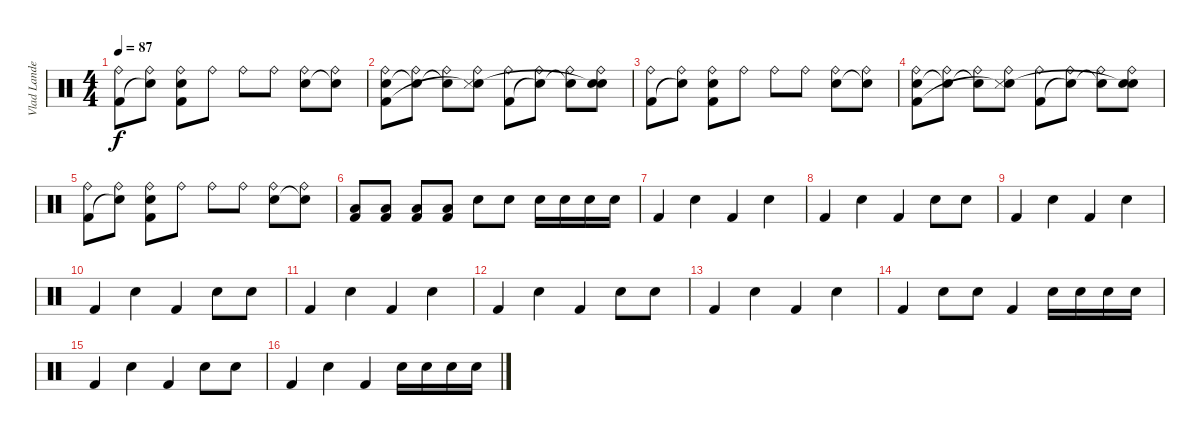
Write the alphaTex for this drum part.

\track ("Vlad Landeros" "Vlad Lande") {instrument percussion}
\staff {score}
\articulation defaults
\ts (4 4)
\tempo 87
\clef neutral
\ks c
("Ride (bell)" "Kick (hit) 2").8{dy f} ("Ride (bell)" "Snare (hit)"{t}).8 ("Ride (bell)" "Snare (hit) 2" "Kick (hit) 2").8 "Ride (bell)".8 "Ride (bell)".8 "Ride (bell)".8 ("Ride (bell)" "Snare (hit) 2").8 ("Ride (bell)" "Snare (hit)"{t}).8 |
("Ride (bell)" "Snare (hit) 2" "Kick (hit) 2").8 ("Ride (bell)" "Snare (hit)"{t}).8 ("Ride (bell)" "Snare (hit)"{t}).8 ("Ride (bell)" "Snare (hit) 2" "Metronome (hit)"{t}).8 ("Ride (bell)" "Kick (hit) 2").8 ("Ride (bell)" "Snare (hit)"{t}).8 ("Ride (bell)" "Snare (hit)"{t}).8 ("Ride (bell)" "Snare (hit) 2" "Snare (hit)"{t}).8 |
("Ride (bell)" "Kick (hit) 2").8 ("Ride (bell)" "Snare (hit)"{t}).8 ("Ride (bell)" "Snare (hit) 2" "Kick (hit) 2").8 "Ride (bell)".8 "Ride (bell)".8 "Ride (bell)".8 ("Ride (bell)" "Snare (hit) 2").8 ("Ride (bell)" "Snare (hit)"{t}).8 |
("Ride (bell)" "Snare (hit) 2" "Kick (hit) 2").8 ("Ride (bell)" "Snare (hit)"{t}).8 ("Ride (bell)" "Snare (hit)"{t}).8 ("Ride (bell)" "Snare (hit) 2" "Metronome (hit)"{t}).8 ("Ride (bell)" "Kick (hit) 2").8 ("Ride (bell)" "Snare (hit)"{t}).8 ("Ride (bell)" "Snare (hit)"{t}).8 ("Ride (bell)" "Snare (hit) 2" "Snare (hit)"{t}).8 |
("Ride (bell)" "Kick (hit) 2").8 ("Ride (bell)" "Snare (hit)"{t}).8 ("Ride (bell)" "Snare (hit) 2" "Kick (hit) 2").8 "Ride (bell)".8 "Ride (bell)".8 "Ride (bell)".8 ("Ride (bell)" "Snare (hit) 2").8 ("Ride (bell)" "Snare (hit)"{t}).8 |
("Low Floor Tom (hit)" "Kick (hit) 2").8 ("Low Floor Tom (hit)" "Kick (hit) 2").8 ("Low Floor Tom (hit)" "Kick (hit) 2").8 ("Low Floor Tom (hit)" "Kick (hit) 2").8 "Snare (hit) 2".8 "Snare (hit) 2".8 "Snare (hit) 2".16 "Snare (hit) 2".16 "Snare (hit) 2".16 "Snare (hit) 2".16 |
"Kick (hit) 2".4 "Snare (hit) 2".4 "Kick (hit) 2".4 "Snare (hit) 2".4 |
"Kick (hit) 2".4 "Snare (hit) 2".4 "Kick (hit) 2".4 "Snare (hit) 2".8 "Snare (hit) 2".8 |
"Kick (hit) 2".4 "Snare (hit) 2".4 "Kick (hit) 2".4 "Snare (hit) 2".4 |
"Kick (hit) 2".4 "Snare (hit) 2".4 "Kick (hit) 2".4 "Snare (hit) 2".8 "Snare (hit) 2".8 |
"Kick (hit) 2".4 "Snare (hit) 2".4 "Kick (hit) 2".4 "Snare (hit) 2".4 |
"Kick (hit) 2".4 "Snare (hit) 2".4 "Kick (hit) 2".4 "Snare (hit) 2".8 "Snare (hit) 2".8 |
"Kick (hit) 2".4 "Snare (hit) 2".4 "Kick (hit) 2".4 "Snare (hit) 2".4 |
"Kick (hit) 2".4 "Snare (hit) 2".8 "Snare (hit) 2".8 "Kick (hit) 2".4 "Snare (hit) 2".16 "Snare (hit) 2".16 "Snare (hit) 2".16 "Snare (hit) 2".16 |
"Kick (hit) 2".4 "Snare (hit) 2".4 "Kick (hit) 2".4 "Snare (hit) 2".8 "Snare (hit) 2".8 |
"Kick (hit) 2".4 "Snare (hit) 2".4 "Kick (hit) 2".4 "Snare (hit) 2".16 "Snare (hit) 2".16 "Snare (hit) 2".16 "Snare (hit) 2".16
